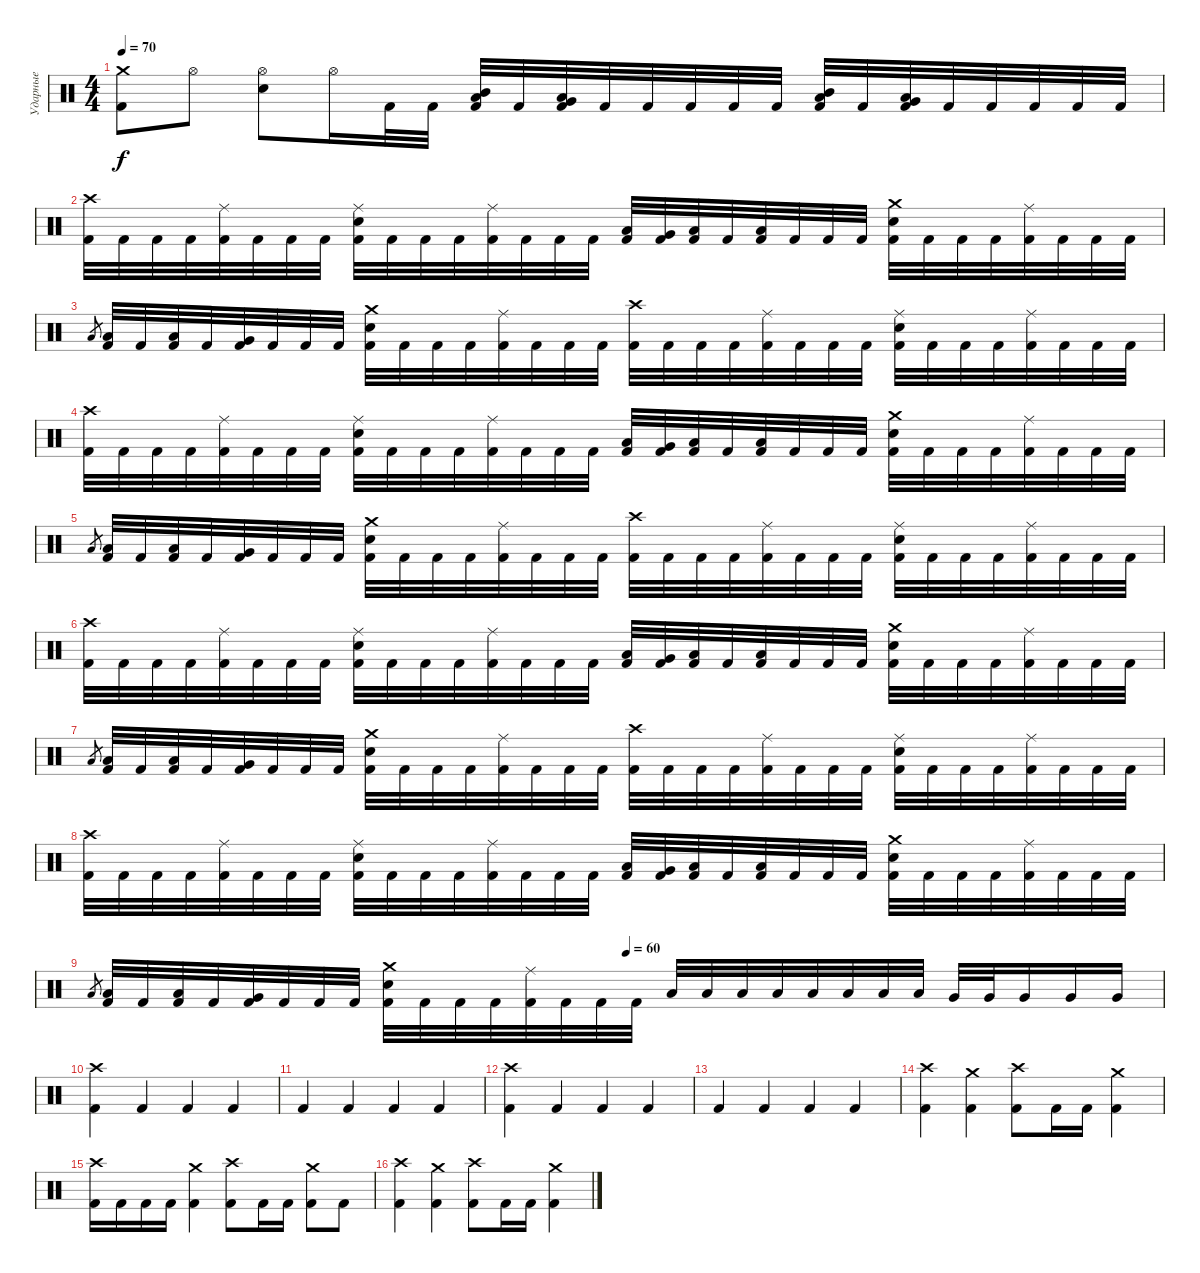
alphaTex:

\track ("Ударные" "Ударные") {instrument percussion}
\staff {score}
\articulation defaults
\ts (4 4)
\tempo 70
\clef neutral
\ks c
("Crash medium (hit)" "Kick (hit) 2").8{dy f} "Hi-Hat (open)".8 ("Hi-Hat (open)" "Snare (hit) 2").8 "Hi-Hat (open)".16 "Kick (hit) 2".32 "Kick (hit) 2".32 ("Mid Tom (hit)" "Low Tom (hit)" "Kick (hit) 2").32 "Kick (hit) 2".32 ("Low Tom (hit)" "Very Low Tom (hit)" "Kick (hit) 2").32 "Kick (hit) 2".32 "Kick (hit) 2".32 "Kick (hit) 2".32 "Kick (hit) 2".32 "Kick (hit) 2".32 ("Mid Tom (hit)" "Low Tom (hit)" "Kick (hit) 2").32 "Kick (hit) 2".32 ("Low Tom (hit)" "Very Low Tom (hit)" "Kick (hit) 2").32 "Kick (hit) 2".32 "Kick (hit) 2".32 "Kick (hit) 2".32 "Kick (hit) 2".32 "Kick (hit) 2".32 |
("Crash high (hit)" "Kick (hit) 2").32 "Kick (hit) 2".32 "Kick (hit) 2".32 "Kick (hit) 2".32 ("Ride (middle)" "Kick (hit) 2").32 "Kick (hit) 2".32 "Kick (hit) 2".32 "Kick (hit) 2".32 ("Ride (middle)" "Snare (hit) 2" "Kick (hit) 2").32 "Kick (hit) 2".32 "Kick (hit) 2".32 "Kick (hit) 2".32 ("Ride (middle)" "Kick (hit) 2").32 "Kick (hit) 2".32 "Kick (hit) 2".32 "Kick (hit) 2".32 ("Low Tom (hit)" "Kick (hit) 2").32 ("Very Low Tom (hit)" "Kick (hit) 2").32 ("Low Tom (hit)" "Kick (hit) 2").32 "Kick (hit) 2".32 ("Low Tom (hit)" "Kick (hit) 2").32 "Kick (hit) 2".32 "Kick (hit) 2".32 "Kick (hit) 2".32 ("Crash medium (hit)" "Snare (hit) 2" "Kick (hit) 2").32 "Kick (hit) 2".32 "Kick (hit) 2".32 "Kick (hit) 2".32 ("Ride (middle)" "Kick (hit) 2").32 "Kick (hit) 2".32 "Kick (hit) 2".32 "Kick (hit) 2".32 |
"Low Tom (hit)".8{gr} ("Low Tom (hit)" "Kick (hit) 2").32 "Kick (hit) 2".32 ("Low Tom (hit)" "Kick (hit) 2").32 "Kick (hit) 2".32 ("Very Low Tom (hit)" "Kick (hit) 2").32 "Kick (hit) 2".32 "Kick (hit) 2".32 "Kick (hit) 2".32 ("Crash medium (hit)" "Snare (hit) 2" "Kick (hit) 2").32 "Kick (hit) 2".32 "Kick (hit) 2".32 "Kick (hit) 2".32 ("Ride (middle)" "Kick (hit) 2").32 "Kick (hit) 2".32 "Kick (hit) 2".32 "Kick (hit) 2".32 ("Crash high (hit)" "Kick (hit) 2").32 "Kick (hit) 2".32 "Kick (hit) 2".32 "Kick (hit) 2".32 ("Ride (middle)" "Kick (hit) 2").32 "Kick (hit) 2".32 "Kick (hit) 2".32 "Kick (hit) 2".32 ("Ride (middle)" "Snare (hit) 2" "Kick (hit) 2").32 "Kick (hit) 2".32 "Kick (hit) 2".32 "Kick (hit) 2".32 ("Ride (middle)" "Kick (hit) 2").32 "Kick (hit) 2".32 "Kick (hit) 2".32 "Kick (hit) 2".32 |
("Crash high (hit)" "Kick (hit) 2").32 "Kick (hit) 2".32 "Kick (hit) 2".32 "Kick (hit) 2".32 ("Ride (middle)" "Kick (hit) 2").32 "Kick (hit) 2".32 "Kick (hit) 2".32 "Kick (hit) 2".32 ("Ride (middle)" "Snare (hit) 2" "Kick (hit) 2").32 "Kick (hit) 2".32 "Kick (hit) 2".32 "Kick (hit) 2".32 ("Ride (middle)" "Kick (hit) 2").32 "Kick (hit) 2".32 "Kick (hit) 2".32 "Kick (hit) 2".32 ("Low Tom (hit)" "Kick (hit) 2").32 ("Very Low Tom (hit)" "Kick (hit) 2").32 ("Low Tom (hit)" "Kick (hit) 2").32 "Kick (hit) 2".32 ("Low Tom (hit)" "Kick (hit) 2").32 "Kick (hit) 2".32 "Kick (hit) 2".32 "Kick (hit) 2".32 ("Crash medium (hit)" "Snare (hit) 2" "Kick (hit) 2").32 "Kick (hit) 2".32 "Kick (hit) 2".32 "Kick (hit) 2".32 ("Ride (middle)" "Kick (hit) 2").32 "Kick (hit) 2".32 "Kick (hit) 2".32 "Kick (hit) 2".32 |
"Low Tom (hit)".8{gr} ("Low Tom (hit)" "Kick (hit) 2").32 "Kick (hit) 2".32 ("Low Tom (hit)" "Kick (hit) 2").32 "Kick (hit) 2".32 ("Very Low Tom (hit)" "Kick (hit) 2").32 "Kick (hit) 2".32 "Kick (hit) 2".32 "Kick (hit) 2".32 ("Crash medium (hit)" "Snare (hit) 2" "Kick (hit) 2").32 "Kick (hit) 2".32 "Kick (hit) 2".32 "Kick (hit) 2".32 ("Ride (middle)" "Kick (hit) 2").32 "Kick (hit) 2".32 "Kick (hit) 2".32 "Kick (hit) 2".32 ("Crash high (hit)" "Kick (hit) 2").32 "Kick (hit) 2".32 "Kick (hit) 2".32 "Kick (hit) 2".32 ("Ride (middle)" "Kick (hit) 2").32 "Kick (hit) 2".32 "Kick (hit) 2".32 "Kick (hit) 2".32 ("Ride (middle)" "Snare (hit) 2" "Kick (hit) 2").32 "Kick (hit) 2".32 "Kick (hit) 2".32 "Kick (hit) 2".32 ("Ride (middle)" "Kick (hit) 2").32 "Kick (hit) 2".32 "Kick (hit) 2".32 "Kick (hit) 2".32 |
("Crash high (hit)" "Kick (hit) 2").32 "Kick (hit) 2".32 "Kick (hit) 2".32 "Kick (hit) 2".32 ("Ride (middle)" "Kick (hit) 2").32 "Kick (hit) 2".32 "Kick (hit) 2".32 "Kick (hit) 2".32 ("Ride (middle)" "Snare (hit) 2" "Kick (hit) 2").32 "Kick (hit) 2".32 "Kick (hit) 2".32 "Kick (hit) 2".32 ("Ride (middle)" "Kick (hit) 2").32 "Kick (hit) 2".32 "Kick (hit) 2".32 "Kick (hit) 2".32 ("Low Tom (hit)" "Kick (hit) 2").32 ("Very Low Tom (hit)" "Kick (hit) 2").32 ("Low Tom (hit)" "Kick (hit) 2").32 "Kick (hit) 2".32 ("Low Tom (hit)" "Kick (hit) 2").32 "Kick (hit) 2".32 "Kick (hit) 2".32 "Kick (hit) 2".32 ("Crash medium (hit)" "Snare (hit) 2" "Kick (hit) 2").32 "Kick (hit) 2".32 "Kick (hit) 2".32 "Kick (hit) 2".32 ("Ride (middle)" "Kick (hit) 2").32 "Kick (hit) 2".32 "Kick (hit) 2".32 "Kick (hit) 2".32 |
"Low Tom (hit)".8{gr} ("Low Tom (hit)" "Kick (hit) 2").32 "Kick (hit) 2".32 ("Low Tom (hit)" "Kick (hit) 2").32 "Kick (hit) 2".32 ("Very Low Tom (hit)" "Kick (hit) 2").32 "Kick (hit) 2".32 "Kick (hit) 2".32 "Kick (hit) 2".32 ("Crash medium (hit)" "Snare (hit) 2" "Kick (hit) 2").32 "Kick (hit) 2".32 "Kick (hit) 2".32 "Kick (hit) 2".32 ("Ride (middle)" "Kick (hit) 2").32 "Kick (hit) 2".32 "Kick (hit) 2".32 "Kick (hit) 2".32 ("Crash high (hit)" "Kick (hit) 2").32 "Kick (hit) 2".32 "Kick (hit) 2".32 "Kick (hit) 2".32 ("Ride (middle)" "Kick (hit) 2").32 "Kick (hit) 2".32 "Kick (hit) 2".32 "Kick (hit) 2".32 ("Ride (middle)" "Snare (hit) 2" "Kick (hit) 2").32 "Kick (hit) 2".32 "Kick (hit) 2".32 "Kick (hit) 2".32 ("Ride (middle)" "Kick (hit) 2").32 "Kick (hit) 2".32 "Kick (hit) 2".32 "Kick (hit) 2".32 |
("Crash high (hit)" "Kick (hit) 2").32 "Kick (hit) 2".32 "Kick (hit) 2".32 "Kick (hit) 2".32 ("Ride (middle)" "Kick (hit) 2").32 "Kick (hit) 2".32 "Kick (hit) 2".32 "Kick (hit) 2".32 ("Ride (middle)" "Snare (hit) 2" "Kick (hit) 2").32 "Kick (hit) 2".32 "Kick (hit) 2".32 "Kick (hit) 2".32 ("Ride (middle)" "Kick (hit) 2").32 "Kick (hit) 2".32 "Kick (hit) 2".32 "Kick (hit) 2".32 ("Low Tom (hit)" "Kick (hit) 2").32 ("Very Low Tom (hit)" "Kick (hit) 2").32 ("Low Tom (hit)" "Kick (hit) 2").32 "Kick (hit) 2".32 ("Low Tom (hit)" "Kick (hit) 2").32 "Kick (hit) 2".32 "Kick (hit) 2".32 "Kick (hit) 2".32 ("Crash medium (hit)" "Snare (hit) 2" "Kick (hit) 2").32 "Kick (hit) 2".32 "Kick (hit) 2".32 "Kick (hit) 2".32 ("Ride (middle)" "Kick (hit) 2").32 "Kick (hit) 2".32 "Kick (hit) 2".32 "Kick (hit) 2".32 |
\tempo (60 0.5)
"Low Tom (hit)".8{gr} ("Low Tom (hit)" "Kick (hit) 2").32 "Kick (hit) 2".32 ("Low Tom (hit)" "Kick (hit) 2").32 "Kick (hit) 2".32 ("Very Low Tom (hit)" "Kick (hit) 2").32 "Kick (hit) 2".32 "Kick (hit) 2".32 "Kick (hit) 2".32 ("Crash medium (hit)" "Snare (hit) 2" "Kick (hit) 2").32 "Kick (hit) 2".32 "Kick (hit) 2".32 "Kick (hit) 2".32 ("Ride (middle)" "Kick (hit) 2").32 "Kick (hit) 2".32 "Kick (hit) 2".32 "Kick (hit) 2".32 "Low Tom (hit)".32 "Low Tom (hit)".32 "Low Tom (hit)".32 "Low Tom (hit)".32 "Low Tom (hit)".32 "Low Tom (hit)".32 "Low Tom (hit)".32 "Low Tom (hit)".32 "Very Low Tom (hit)".32 "Very Low Tom (hit)".32 "Very Low Tom (hit)".16 "Very Low Tom (hit)".16 "Very Low Tom (hit)".16 |
("Crash high (hit)" "Kick (hit) 2").4 "Kick (hit) 2".4 "Kick (hit) 2".4 "Kick (hit) 2".4 |
"Kick (hit) 2".4 "Kick (hit) 2".4 "Kick (hit) 2".4 "Kick (hit) 2".4 |
("Crash high (hit)" "Kick (hit) 2").4 "Kick (hit) 2".4 "Kick (hit) 2".4 "Kick (hit) 2".4 |
"Kick (hit) 2".4 "Kick (hit) 2".4 "Kick (hit) 2".4 "Kick (hit) 2".4 |
("Crash high (hit)" "Kick (hit) 2").4 ("Crash medium (hit)" "Kick (hit) 2").4 ("Crash high (hit)" "Kick (hit) 2").8 "Kick (hit) 2".16 "Kick (hit) 2".16 ("Crash medium (hit)" "Kick (hit) 2").4 |
("Crash high (hit)" "Kick (hit) 2").16 "Kick (hit) 2".16 "Kick (hit) 2".16 "Kick (hit) 2".16 ("Crash medium (hit)" "Kick (hit) 2").4 ("Crash high (hit)" "Kick (hit) 2").8 "Kick (hit) 2".16 "Kick (hit) 2".16 ("Crash medium (hit)" "Kick (hit) 2").8 "Kick (hit) 2".8 |
("Crash high (hit)" "Kick (hit) 2").4 ("Crash medium (hit)" "Kick (hit) 2").4 ("Crash high (hit)" "Kick (hit) 2").8 "Kick (hit) 2".16 "Kick (hit) 2".16 ("Crash medium (hit)" "Kick (hit) 2").4
